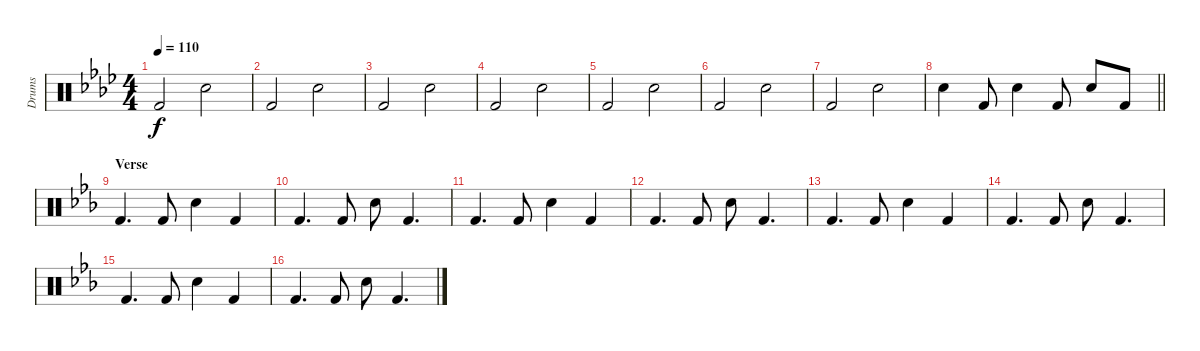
\track ("Drums" "Drums") {instrument percussion}
\staff {score}
\articulation defaults
\ts (4 4)
\tempo 110
\clef neutral
\ks fminor "Kick (hit) 2".2{dy f} "Snare (hit) 2".2
|
"Kick (hit) 2".2 "Snare (hit) 2".2 |
"Kick (hit) 2".2 "Snare (hit) 2".2 |
"Kick (hit) 2".2 "Snare (hit) 2".2 |
"Kick (hit) 2".2 "Snare (hit) 2".2 |
"Kick (hit) 2".2 "Snare (hit) 2".2 |
"Kick (hit) 2".2 "Snare (hit) 2".2 |
\barLineRight lightlight "Snare (hit) 2".4 "Kick (hit) 2".8 "Snare (hit) 2".4 "Kick (hit) 2".8 "Snare (hit) 2".8 "Kick (hit) 2".8
|
\section ("" "Verse")
\ks cminor "Kick (hit) 2".4{d} "Kick (hit) 2".8 "Snare (hit) 2".4 "Kick (hit) 2".4
|
"Kick (hit) 2".4{d} "Kick (hit) 2".8 "Snare (hit) 2".8 "Kick (hit) 2".4{d} |
"Kick (hit) 2".4{d} "Kick (hit) 2".8 "Snare (hit) 2".4 "Kick (hit) 2".4 |
"Kick (hit) 2".4{d} "Kick (hit) 2".8 "Snare (hit) 2".8 "Kick (hit) 2".4{d} |
"Kick (hit) 2".4{d} "Kick (hit) 2".8 "Snare (hit) 2".4 "Kick (hit) 2".4 |
"Kick (hit) 2".4{d} "Kick (hit) 2".8 "Snare (hit) 2".8 "Kick (hit) 2".4{d} |
"Kick (hit) 2".4{d} "Kick (hit) 2".8 "Snare (hit) 2".4 "Kick (hit) 2".4 |
"Kick (hit) 2".4{d} "Kick (hit) 2".8 "Snare (hit) 2".8 "Kick (hit) 2".4{d}
